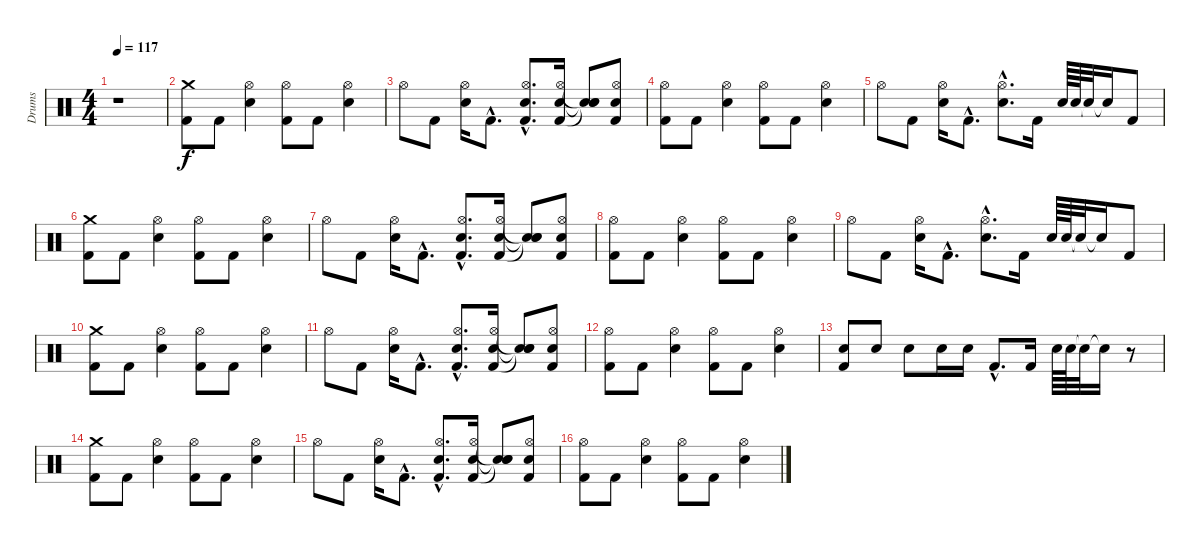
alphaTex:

\track ("Drums" "Drums") {instrument percussion}
\staff {score}
\articulation defaults
\ts (4 4)
\tempo 117
\clef neutral
\ks c
r.1{dy f} |
("Crash medium (hit)" "Kick (hit) 2").8 "Kick (hit) 2".8 ("Hi-Hat (open)" "Snare (hit) 2").4 ("Hi-Hat (open)" "Kick (hit) 2").8 "Kick (hit) 2".8 ("Hi-Hat (open)" "Snare (hit) 2").4 |
"Hi-Hat (open)".8 "Kick (hit) 2".8 ("Hi-Hat (open)" "Snare (hit) 2").16 "Kick (hit) 2"{hac}.8{d} ("Hi-Hat (open)"{hac} "Snare (hit) 2"{hac} "Kick (hit) 2"{hac}).8{d} ("Hi-Hat (open)" "Snare (hit) 2" "Kick (hit) 2").16 ("Snare (hit)"{t} "Snare (hit)"{t} "Snare (hit)"{t}).8 ("Hi-Hat (open)" "Snare (hit) 2" "Kick (hit) 2").8 |
("Hi-Hat (open)" "Kick (hit) 2").8 "Kick (hit) 2".8 ("Hi-Hat (open)" "Snare (hit) 2").4 ("Hi-Hat (open)" "Kick (hit) 2").8 "Kick (hit) 2".8 ("Hi-Hat (open)" "Snare (hit) 2").4 |
"Hi-Hat (open)".8 "Kick (hit) 2".8 ("Hi-Hat (open)" "Snare (hit) 2").16 "Kick (hit) 2"{hac}.8{d} ("Hi-Hat (open)"{hac} "Snare (hit) 2"{hac}).8{d} "Kick (hit) 2".16 "Snare (hit) 2".64 "Snare (hit) 2".64 "Snare (hit)"{t}.32 "Snare (hit)"{t}.16 "Kick (hit) 2".8 |
("Crash medium (hit)" "Kick (hit) 2").8 "Kick (hit) 2".8 ("Hi-Hat (open)" "Snare (hit) 2").4 ("Hi-Hat (open)" "Kick (hit) 2").8 "Kick (hit) 2".8 ("Hi-Hat (open)" "Snare (hit) 2").4 |
"Hi-Hat (open)".8 "Kick (hit) 2".8 ("Hi-Hat (open)" "Snare (hit) 2").16 "Kick (hit) 2"{hac}.8{d} ("Hi-Hat (open)"{hac} "Snare (hit) 2"{hac} "Kick (hit) 2"{hac}).8{d} ("Hi-Hat (open)" "Snare (hit) 2" "Kick (hit) 2").16 ("Snare (hit)"{t} "Snare (hit)"{t} "Snare (hit)"{t}).8 ("Hi-Hat (open)" "Snare (hit) 2" "Kick (hit) 2").8 |
("Hi-Hat (open)" "Kick (hit) 2").8 "Kick (hit) 2".8 ("Hi-Hat (open)" "Snare (hit) 2").4 ("Hi-Hat (open)" "Kick (hit) 2").8 "Kick (hit) 2".8 ("Hi-Hat (open)" "Snare (hit) 2").4 |
"Hi-Hat (open)".8 "Kick (hit) 2".8 ("Hi-Hat (open)" "Snare (hit) 2").16 "Kick (hit) 2"{hac}.8{d} ("Hi-Hat (open)"{hac} "Snare (hit) 2"{hac}).8{d} "Kick (hit) 2".16 "Snare (hit) 2".64 "Snare (hit) 2".64 "Snare (hit)"{t}.32 "Snare (hit)"{t}.16 "Kick (hit) 2".8 |
("Crash medium (hit)" "Kick (hit) 2").8 "Kick (hit) 2".8 ("Hi-Hat (open)" "Snare (hit) 2").4 ("Hi-Hat (open)" "Kick (hit) 2").8 "Kick (hit) 2".8 ("Hi-Hat (open)" "Snare (hit) 2").4 |
"Hi-Hat (open)".8 "Kick (hit) 2".8 ("Hi-Hat (open)" "Snare (hit) 2").16 "Kick (hit) 2"{hac}.8{d} ("Hi-Hat (open)"{hac} "Snare (hit) 2"{hac} "Kick (hit) 2"{hac}).8{d} ("Hi-Hat (open)" "Snare (hit) 2" "Kick (hit) 2").16 ("Snare (hit)"{t} "Snare (hit)"{t} "Snare (hit)"{t}).8 ("Hi-Hat (open)" "Snare (hit) 2" "Kick (hit) 2").8 |
("Hi-Hat (open)" "Kick (hit) 2").8 "Kick (hit) 2".8 ("Hi-Hat (open)" "Snare (hit) 2").4 ("Hi-Hat (open)" "Kick (hit) 2").8 "Kick (hit) 2".8 ("Hi-Hat (open)" "Snare (hit) 2").4 |
("Snare (hit) 2" "Kick (hit) 2").8 "Snare (hit) 2".8 "Snare (hit) 2".8 "Snare (hit) 2".16 "Snare (hit) 2".16 "Kick (hit) 2"{hac}.8{d} "Kick (hit) 2".16 "Snare (hit) 2".64 "Snare (hit) 2".64 "Snare (hit)"{t}.32 "Snare (hit)"{t}.16 r.8 |
("Crash medium (hit)" "Kick (hit) 2").8 "Kick (hit) 2".8 ("Hi-Hat (open)" "Snare (hit) 2").4 ("Hi-Hat (open)" "Kick (hit) 2").8 "Kick (hit) 2".8 ("Hi-Hat (open)" "Snare (hit) 2").4 |
"Hi-Hat (open)".8 "Kick (hit) 2".8 ("Hi-Hat (open)" "Snare (hit) 2").16 "Kick (hit) 2"{hac}.8{d} ("Hi-Hat (open)"{hac} "Snare (hit) 2"{hac} "Kick (hit) 2"{hac}).8{d} ("Hi-Hat (open)" "Snare (hit) 2" "Kick (hit) 2").16 ("Snare (hit)"{t} "Snare (hit)"{t} "Snare (hit)"{t}).8 ("Hi-Hat (open)" "Snare (hit) 2" "Kick (hit) 2").8 |
("Hi-Hat (open)" "Kick (hit) 2").8 "Kick (hit) 2".8 ("Hi-Hat (open)" "Snare (hit) 2").4 ("Hi-Hat (open)" "Kick (hit) 2").8 "Kick (hit) 2".8 ("Hi-Hat (open)" "Snare (hit) 2").4
